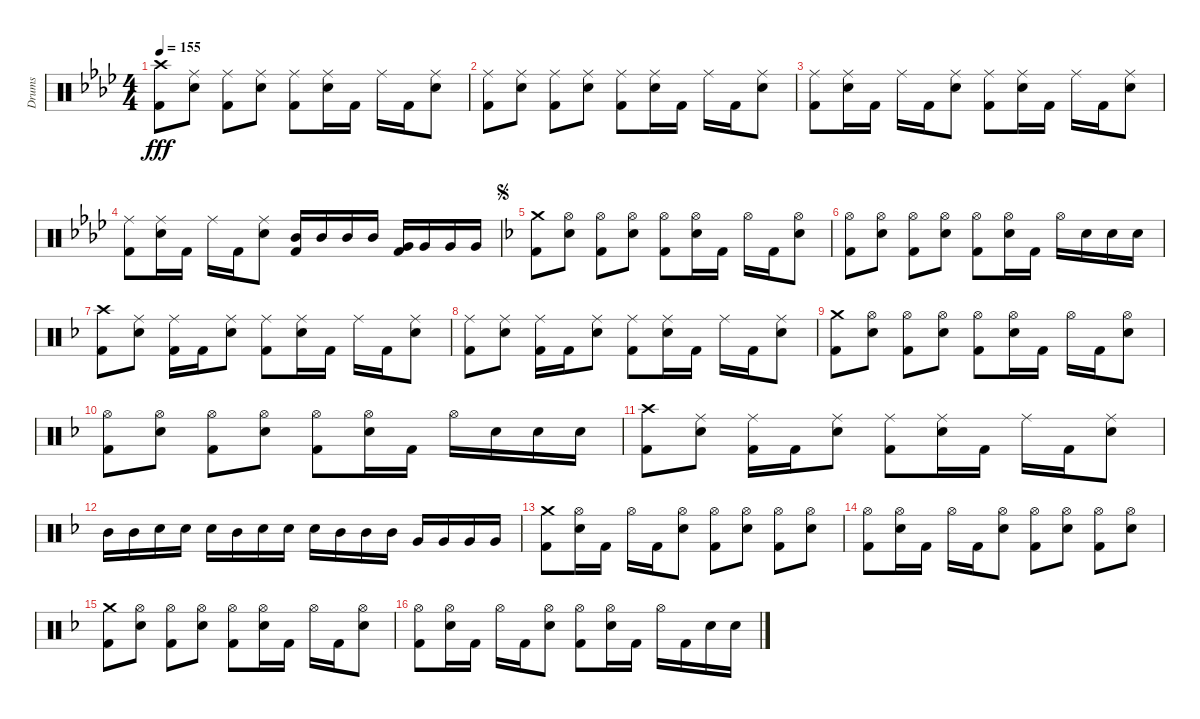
\track ("Drums" "Drums") {instrument percussion}
\staff {score}
\articulation defaults
\ts (4 4)
\tempo 155
\clef neutral
\ks ab
("Crash high (hit)" "Kick (hit) 2").8{dy fff} ("Ride (middle)" "Electric Snare (hit)").8 ("Ride (middle)" "Kick (hit) 2").8 ("Ride (middle)" "Electric Snare (hit)").8 ("Ride (middle)" "Kick (hit) 2").8 ("Ride (middle)" "Electric Snare (hit)").16 "Kick (hit) 2".16 "Ride (middle)".16 "Kick (hit) 2".16 ("Ride (middle)" "Electric Snare (hit)").8 |
("Ride (middle)" "Kick (hit) 2").8 ("Ride (middle)" "Electric Snare (hit)").8 ("Ride (middle)" "Kick (hit) 2").8 ("Ride (middle)" "Electric Snare (hit)").8 ("Ride (middle)" "Kick (hit) 2").8 ("Ride (middle)" "Electric Snare (hit)").16 "Kick (hit) 2".16 "Ride (middle)".16 "Kick (hit) 2".16 ("Ride (middle)" "Electric Snare (hit)").8 |
("Ride (middle)" "Kick (hit) 2").8 ("Ride (middle)" "Electric Snare (hit)").16 "Kick (hit) 2".16 "Ride (middle)".16 "Kick (hit) 2".16 ("Ride (middle)" "Electric Snare (hit)").8 ("Ride (middle)" "Kick (hit) 2").8 ("Ride (middle)" "Electric Snare (hit)").16 "Kick (hit) 2".16 "Ride (middle)".16 "Kick (hit) 2".16 ("Ride (middle)" "Electric Snare (hit)").8 |
("Ride (middle)" "Kick (hit) 2").8 ("Ride (middle)" "Electric Snare (hit)").16 "Kick (hit) 2".16 "Ride (middle)".16 "Kick (hit) 2".16 ("Ride (middle)" "Electric Snare (hit)").8 ("Mid Tom (hit)" "Kick (hit) 2").16 "Mid Tom (hit)".16 "Mid Tom (hit)".16 "Mid Tom (hit)".16 ("Very Low Tom (hit)" "Kick (hit) 2").16 "Very Low Tom (hit)".16 "Very Low Tom (hit)".16 "Very Low Tom (hit)".16 |
\jump segno
\ks f
("Crash medium (hit)" "Kick (hit) 2").8 ("Hi-Hat (open)" "Electric Snare (hit)").8 ("Hi-Hat (open)" "Kick (hit) 2").8 ("Hi-Hat (open)" "Electric Snare (hit)").8 ("Hi-Hat (open)" "Kick (hit) 2").8 ("Hi-Hat (open)" "Electric Snare (hit)").16 "Kick (hit) 2".16 "Hi-Hat (open)".16 "Kick (hit) 2".16 ("Hi-Hat (open)" "Electric Snare (hit)").8 |
("Hi-Hat (open)" "Kick (hit) 2").8 ("Hi-Hat (open)" "Electric Snare (hit)").8 ("Hi-Hat (open)" "Kick (hit) 2").8 ("Hi-Hat (open)" "Electric Snare (hit)").8 ("Hi-Hat (open)" "Kick (hit) 2").8 ("Hi-Hat (open)" "Electric Snare (hit)").16 "Kick (hit) 2".16 "Hi-Hat (open)".16 "Electric Snare (hit)".16 "Electric Snare (hit)".16 "Electric Snare (hit)".16 |
("Crash high (hit)" "Kick (hit) 2").8 ("Ride (middle)" "Electric Snare (hit)").8 ("Ride (middle)" "Kick (hit) 2").16 "Kick (hit) 2".16 ("Ride (middle)" "Electric Snare (hit)").8 ("Ride (middle)" "Kick (hit) 2").8 ("Ride (middle)" "Electric Snare (hit)").16 "Kick (hit) 2".16 "Ride (middle)".16 "Kick (hit) 2".16 ("Ride (middle)" "Electric Snare (hit)").8 |
("Ride (middle)" "Kick (hit) 2").8 ("Ride (middle)" "Electric Snare (hit)").8 ("Ride (middle)" "Kick (hit) 2").16 "Kick (hit) 2".16 ("Ride (middle)" "Electric Snare (hit)").8 ("Ride (middle)" "Kick (hit) 2").8 ("Ride (middle)" "Electric Snare (hit)").16 "Kick (hit) 2".16 "Ride (middle)".16 "Kick (hit) 2".16 ("Ride (middle)" "Electric Snare (hit)").8 |
("Crash medium (hit)" "Kick (hit) 2").8 ("Hi-Hat (open)" "Electric Snare (hit)").8 ("Hi-Hat (open)" "Kick (hit) 2").8 ("Hi-Hat (open)" "Electric Snare (hit)").8 ("Hi-Hat (open)" "Kick (hit) 2").8 ("Hi-Hat (open)" "Electric Snare (hit)").16 "Kick (hit) 2".16 "Hi-Hat (open)".16 "Kick (hit) 2".16 ("Hi-Hat (open)" "Electric Snare (hit)").8 |
("Hi-Hat (open)" "Kick (hit) 2").8 ("Hi-Hat (open)" "Electric Snare (hit)").8 ("Hi-Hat (open)" "Kick (hit) 2").8 ("Hi-Hat (open)" "Electric Snare (hit)").8 ("Hi-Hat (open)" "Kick (hit) 2").8 ("Hi-Hat (open)" "Electric Snare (hit)").16 "Kick (hit) 2".16 "Hi-Hat (open)".16 "Electric Snare (hit)".16 "Electric Snare (hit)".16 "Electric Snare (hit)".16 |
("Crash high (hit)" "Kick (hit) 2").8 ("Ride (middle)" "Electric Snare (hit)").8 ("Ride (middle)" "Kick (hit) 2").16 "Kick (hit) 2".16 ("Ride (middle)" "Electric Snare (hit)").8 ("Ride (middle)" "Kick (hit) 2").8 ("Ride (middle)" "Electric Snare (hit)").16 "Kick (hit) 2".16 "Ride (middle)".16 "Kick (hit) 2".16 ("Ride (middle)" "Electric Snare (hit)").8 |
"Mid Tom (hit)".16 "Mid Tom (hit)".16 "Electric Snare (hit)".16 "Electric Snare (hit)".16 "Electric Snare (hit)".16 "Mid Tom (hit)".16 "Electric Snare (hit)".16 "Electric Snare (hit)".16 "Electric Snare (hit)".16 "Mid Tom (hit)".16 "Mid Tom (hit)".16 "Mid Tom (hit)".16 "Very Low Tom (hit)".16 "Very Low Tom (hit)".16 "Very Low Tom (hit)".16 "Very Low Tom (hit)".16 |
("Crash medium (hit)" "Kick (hit) 2").8 ("Hi-Hat (open)" "Electric Snare (hit)").16 "Kick (hit) 2".16 "Hi-Hat (open)".16 "Kick (hit) 2".16 ("Hi-Hat (open)" "Electric Snare (hit)").8 ("Hi-Hat (open)" "Kick (hit) 2").8 ("Hi-Hat (open)" "Electric Snare (hit)").8 ("Hi-Hat (open)" "Kick (hit) 2").8 ("Hi-Hat (open)" "Electric Snare (hit)").8 |
("Hi-Hat (open)" "Kick (hit) 2").8 ("Hi-Hat (open)" "Electric Snare (hit)").16 "Kick (hit) 2".16 "Hi-Hat (open)".16 "Kick (hit) 2".16 ("Hi-Hat (open)" "Electric Snare (hit)").8 ("Hi-Hat (open)" "Kick (hit) 2").8 ("Hi-Hat (open)" "Electric Snare (hit)").8 ("Hi-Hat (open)" "Kick (hit) 2").8 ("Hi-Hat (open)" "Electric Snare (hit)").8 |
("Crash medium (hit)" "Kick (hit) 2").8 ("Hi-Hat (open)" "Electric Snare (hit)").8 ("Hi-Hat (open)" "Kick (hit) 2").8 ("Hi-Hat (open)" "Electric Snare (hit)").8 ("Hi-Hat (open)" "Kick (hit) 2").8 ("Hi-Hat (open)" "Electric Snare (hit)").16 "Kick (hit) 2".16 "Hi-Hat (open)".16 "Kick (hit) 2".16 ("Hi-Hat (open)" "Electric Snare (hit)").8 |
("Hi-Hat (open)" "Kick (hit) 2").8 ("Hi-Hat (open)" "Electric Snare (hit)").16 "Kick (hit) 2".16 "Hi-Hat (open)".16 "Kick (hit) 2".16 ("Hi-Hat (open)" "Electric Snare (hit)").8 ("Hi-Hat (open)" "Kick (hit) 2").8 ("Hi-Hat (open)" "Electric Snare (hit)").16 "Kick (hit) 2".16 "Hi-Hat (open)".16 "Kick (hit) 2".16 "Electric Snare (hit)".16 "Electric Snare (hit)".16
